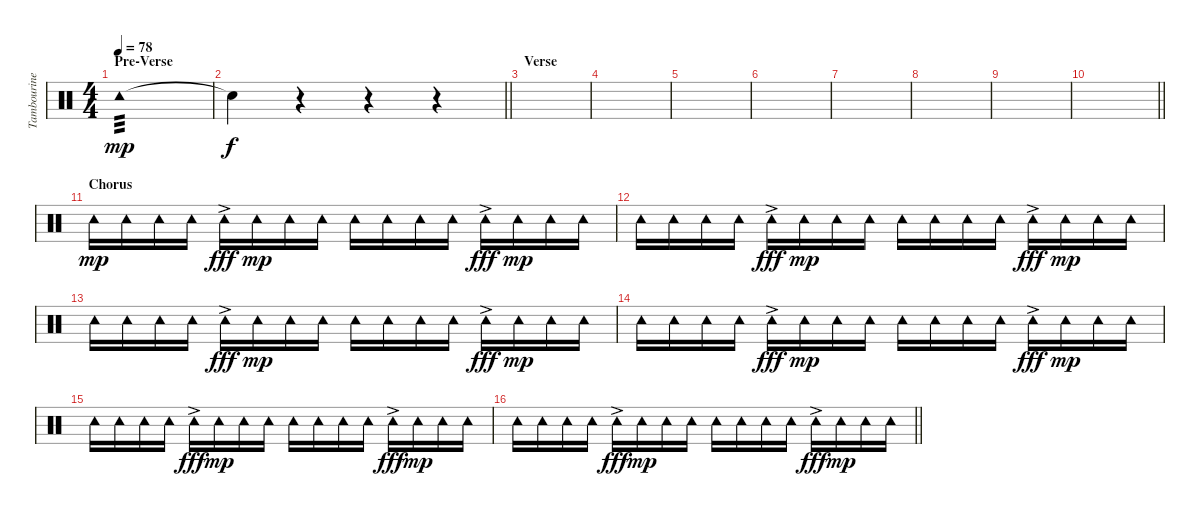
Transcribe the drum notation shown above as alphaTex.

\track ("Tambourine" "Tambourine") {instrument percussion}
\staff {score}
\articulation defaults
\ts (4 4)
\section ("" "Pre-Verse")
\tempo 78
\clef neutral
\ks c "Tambourine (hit)".1{tp 3 dy mp volume 0}
|
\barLineRight lightlight "Snare (hit)"{t}.4{dy f}
r.4 r.4 r.4 |
\section ("" "Verse")
|
|
|
|
|
|
|
\barLineRight lightlight
|
\section ("" "Chorus")
"Tambourine (hit)".16{dy mp volume 1} "Tambourine (hit)".16 "Tambourine (hit)".16 "Tambourine (hit)".16 "Tambourine (hit)"{ac}.16{dy fff} "Tambourine (hit)".16{dy mp} "Tambourine (hit)".16 "Tambourine (hit)".16 "Tambourine (hit)".16 "Tambourine (hit)".16 "Tambourine (hit)".16 "Tambourine (hit)".16 "Tambourine (hit)"{ac}.16{dy fff} "Tambourine (hit)".16{dy mp} "Tambourine (hit)".16 "Tambourine (hit)".16 |
"Tambourine (hit)".16 "Tambourine (hit)".16 "Tambourine (hit)".16 "Tambourine (hit)".16 "Tambourine (hit)"{ac}.16{dy fff} "Tambourine (hit)".16{dy mp} "Tambourine (hit)".16 "Tambourine (hit)".16 "Tambourine (hit)".16 "Tambourine (hit)".16 "Tambourine (hit)".16 "Tambourine (hit)".16 "Tambourine (hit)"{ac}.16{dy fff} "Tambourine (hit)".16{dy mp} "Tambourine (hit)".16 "Tambourine (hit)".16 |
"Tambourine (hit)".16 "Tambourine (hit)".16 "Tambourine (hit)".16 "Tambourine (hit)".16 "Tambourine (hit)"{ac}.16{dy fff} "Tambourine (hit)".16{dy mp} "Tambourine (hit)".16 "Tambourine (hit)".16 "Tambourine (hit)".16 "Tambourine (hit)".16 "Tambourine (hit)".16 "Tambourine (hit)".16 "Tambourine (hit)"{ac}.16{dy fff} "Tambourine (hit)".16{dy mp} "Tambourine (hit)".16 "Tambourine (hit)".16 |
"Tambourine (hit)".16 "Tambourine (hit)".16 "Tambourine (hit)".16 "Tambourine (hit)".16 "Tambourine (hit)"{ac}.16{dy fff} "Tambourine (hit)".16{dy mp} "Tambourine (hit)".16 "Tambourine (hit)".16 "Tambourine (hit)".16 "Tambourine (hit)".16 "Tambourine (hit)".16 "Tambourine (hit)".16 "Tambourine (hit)"{ac}.16{dy fff} "Tambourine (hit)".16{dy mp} "Tambourine (hit)".16 "Tambourine (hit)".16 |
"Tambourine (hit)".16 "Tambourine (hit)".16 "Tambourine (hit)".16 "Tambourine (hit)".16 "Tambourine (hit)"{ac}.16{dy fff} "Tambourine (hit)".16{dy mp} "Tambourine (hit)".16 "Tambourine (hit)".16 "Tambourine (hit)".16 "Tambourine (hit)".16 "Tambourine (hit)".16 "Tambourine (hit)".16 "Tambourine (hit)"{ac}.16{dy fff} "Tambourine (hit)".16{dy mp} "Tambourine (hit)".16 "Tambourine (hit)".16 |
\barLineRight lightlight "Tambourine (hit)".16 "Tambourine (hit)".16 "Tambourine (hit)".16 "Tambourine (hit)".16 "Tambourine (hit)"{ac}.16{dy fff} "Tambourine (hit)".16{dy mp} "Tambourine (hit)".16 "Tambourine (hit)".16 "Tambourine (hit)".16 "Tambourine (hit)".16 "Tambourine (hit)".16 "Tambourine (hit)".16 "Tambourine (hit)"{ac}.16{dy fff} "Tambourine (hit)".16{dy mp} "Tambourine (hit)".16 "Tambourine (hit)".16
